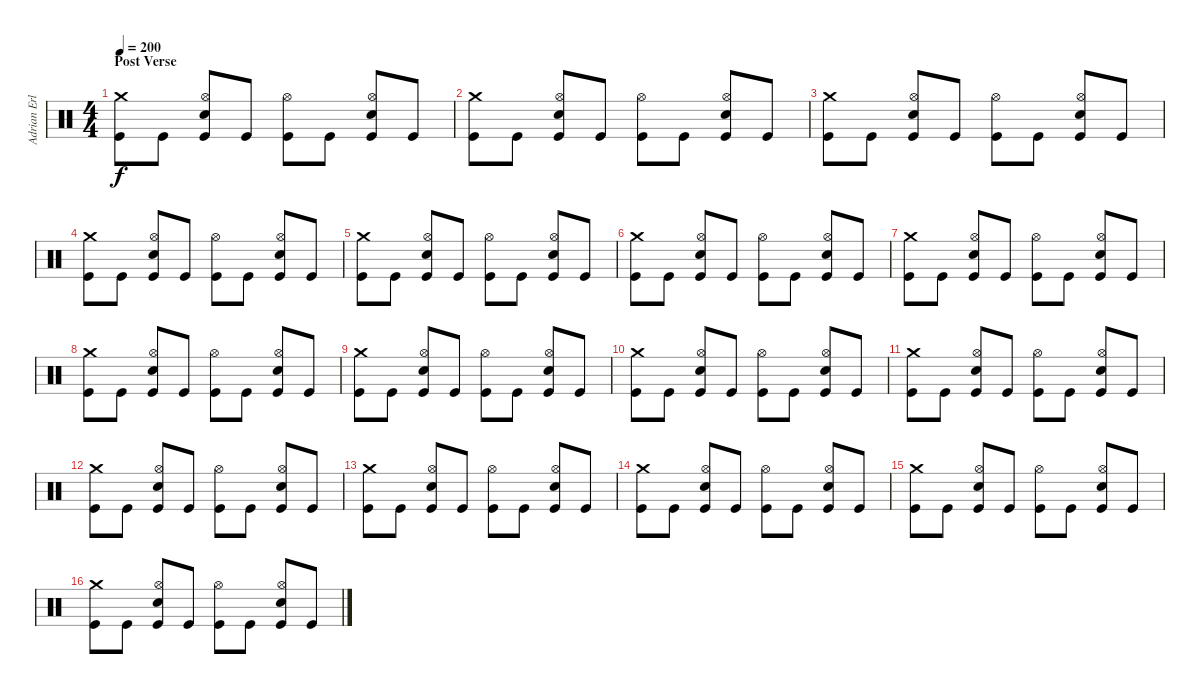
\track ("Adrian Erlandsson" "Adrian Erl") {instrument percussion}
\staff {score}
\articulation defaults
\ts (4 4)
\section ("" "Post Verse")
\tempo 200
\clef neutral
\ks c
("Crash medium (hit)" "Kick (hit)").8{dy f} "Kick (hit)".8 ("Hi-Hat (open)" "Electric Snare (hit)" "Kick (hit)").8 "Kick (hit)".8 ("Hi-Hat (open)" "Kick (hit)").8 "Kick (hit)".8 ("Hi-Hat (open)" "Electric Snare (hit)" "Kick (hit)").8 "Kick (hit)".8 |
("Crash medium (hit)" "Kick (hit)").8 "Kick (hit)".8 ("Hi-Hat (open)" "Electric Snare (hit)" "Kick (hit)").8 "Kick (hit)".8 ("Hi-Hat (open)" "Kick (hit)").8 "Kick (hit)".8 ("Hi-Hat (open)" "Electric Snare (hit)" "Kick (hit)").8 "Kick (hit)".8 |
("Crash medium (hit)" "Kick (hit)").8 "Kick (hit)".8 ("Hi-Hat (open)" "Electric Snare (hit)" "Kick (hit)").8 "Kick (hit)".8 ("Hi-Hat (open)" "Kick (hit)").8 "Kick (hit)".8 ("Hi-Hat (open)" "Electric Snare (hit)" "Kick (hit)").8 "Kick (hit)".8 |
("Crash medium (hit)" "Kick (hit)").8 "Kick (hit)".8 ("Hi-Hat (open)" "Electric Snare (hit)" "Kick (hit)").8 "Kick (hit)".8 ("Hi-Hat (open)" "Kick (hit)").8 "Kick (hit)".8 ("Hi-Hat (open)" "Electric Snare (hit)" "Kick (hit)").8 "Kick (hit)".8 |
("Crash medium (hit)" "Kick (hit)").8 "Kick (hit)".8 ("Hi-Hat (open)" "Electric Snare (hit)" "Kick (hit)").8 "Kick (hit)".8 ("Hi-Hat (open)" "Kick (hit)").8 "Kick (hit)".8 ("Hi-Hat (open)" "Electric Snare (hit)" "Kick (hit)").8 "Kick (hit)".8 |
("Crash medium (hit)" "Kick (hit)").8 "Kick (hit)".8 ("Hi-Hat (open)" "Electric Snare (hit)" "Kick (hit)").8 "Kick (hit)".8 ("Hi-Hat (open)" "Kick (hit)").8 "Kick (hit)".8 ("Hi-Hat (open)" "Electric Snare (hit)" "Kick (hit)").8 "Kick (hit)".8 |
("Crash medium (hit)" "Kick (hit)").8 "Kick (hit)".8 ("Hi-Hat (open)" "Electric Snare (hit)" "Kick (hit)").8 "Kick (hit)".8 ("Hi-Hat (open)" "Kick (hit)").8 "Kick (hit)".8 ("Hi-Hat (open)" "Electric Snare (hit)" "Kick (hit)").8 "Kick (hit)".8 |
("Crash medium (hit)" "Kick (hit)").8 "Kick (hit)".8 ("Hi-Hat (open)" "Electric Snare (hit)" "Kick (hit)").8 "Kick (hit)".8 ("Hi-Hat (open)" "Kick (hit)").8 "Kick (hit)".8 ("Hi-Hat (open)" "Electric Snare (hit)" "Kick (hit)").8 "Kick (hit)".8 |
("Crash medium (hit)" "Kick (hit)").8 "Kick (hit)".8 ("Hi-Hat (open)" "Electric Snare (hit)" "Kick (hit)").8 "Kick (hit)".8 ("Hi-Hat (open)" "Kick (hit)").8 "Kick (hit)".8 ("Hi-Hat (open)" "Electric Snare (hit)" "Kick (hit)").8 "Kick (hit)".8 |
("Crash medium (hit)" "Kick (hit)").8 "Kick (hit)".8 ("Hi-Hat (open)" "Electric Snare (hit)" "Kick (hit)").8 "Kick (hit)".8 ("Hi-Hat (open)" "Kick (hit)").8 "Kick (hit)".8 ("Hi-Hat (open)" "Electric Snare (hit)" "Kick (hit)").8 "Kick (hit)".8 |
("Crash medium (hit)" "Kick (hit)").8 "Kick (hit)".8 ("Hi-Hat (open)" "Electric Snare (hit)" "Kick (hit)").8 "Kick (hit)".8 ("Hi-Hat (open)" "Kick (hit)").8 "Kick (hit)".8 ("Hi-Hat (open)" "Electric Snare (hit)" "Kick (hit)").8 "Kick (hit)".8 |
("Crash medium (hit)" "Kick (hit)").8 "Kick (hit)".8 ("Hi-Hat (open)" "Electric Snare (hit)" "Kick (hit)").8 "Kick (hit)".8 ("Hi-Hat (open)" "Kick (hit)").8 "Kick (hit)".8 ("Hi-Hat (open)" "Electric Snare (hit)" "Kick (hit)").8 "Kick (hit)".8 |
("Crash medium (hit)" "Kick (hit)").8 "Kick (hit)".8 ("Hi-Hat (open)" "Electric Snare (hit)" "Kick (hit)").8 "Kick (hit)".8 ("Hi-Hat (open)" "Kick (hit)").8 "Kick (hit)".8 ("Hi-Hat (open)" "Electric Snare (hit)" "Kick (hit)").8 "Kick (hit)".8 |
("Crash medium (hit)" "Kick (hit)").8 "Kick (hit)".8 ("Hi-Hat (open)" "Electric Snare (hit)" "Kick (hit)").8 "Kick (hit)".8 ("Hi-Hat (open)" "Kick (hit)").8 "Kick (hit)".8 ("Hi-Hat (open)" "Electric Snare (hit)" "Kick (hit)").8 "Kick (hit)".8 |
("Crash medium (hit)" "Kick (hit)").8 "Kick (hit)".8 ("Hi-Hat (open)" "Electric Snare (hit)" "Kick (hit)").8 "Kick (hit)".8 ("Hi-Hat (open)" "Kick (hit)").8 "Kick (hit)".8 ("Hi-Hat (open)" "Electric Snare (hit)" "Kick (hit)").8 "Kick (hit)".8 |
("Crash medium (hit)" "Kick (hit)").8 "Kick (hit)".8 ("Hi-Hat (open)" "Electric Snare (hit)" "Kick (hit)").8 "Kick (hit)".8 ("Hi-Hat (open)" "Kick (hit)").8 "Kick (hit)".8 ("Hi-Hat (open)" "Electric Snare (hit)" "Kick (hit)").8 "Kick (hit)".8
